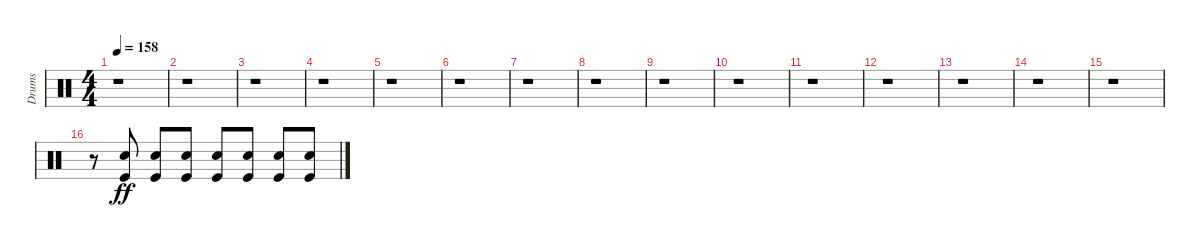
\track ("Drums" "Drums") {instrument percussion}
\staff {score}
\articulation defaults
\ts (4 4)
\tempo 158
\clef neutral
\ks c
r.1{dy ff} |
r.1 |
r.1 |
r.1 |
r.1 |
r.1 |
r.1 |
r.1 |
r.1 |
r.1 |
r.1 |
r.1 |
r.1 |
r.1 |
r.1 |
r.8 ("Kick (hit)" "Snare (hit) 2").8 ("Kick (hit)" "Snare (hit) 2").8 ("Kick (hit)" "Snare (hit) 2").8 ("Snare (hit) 2" "Kick (hit)").8 ("Kick (hit)" "Snare (hit) 2").8 ("Kick (hit)" "Snare (hit) 2").8 ("Kick (hit)" "Snare (hit) 2").8
